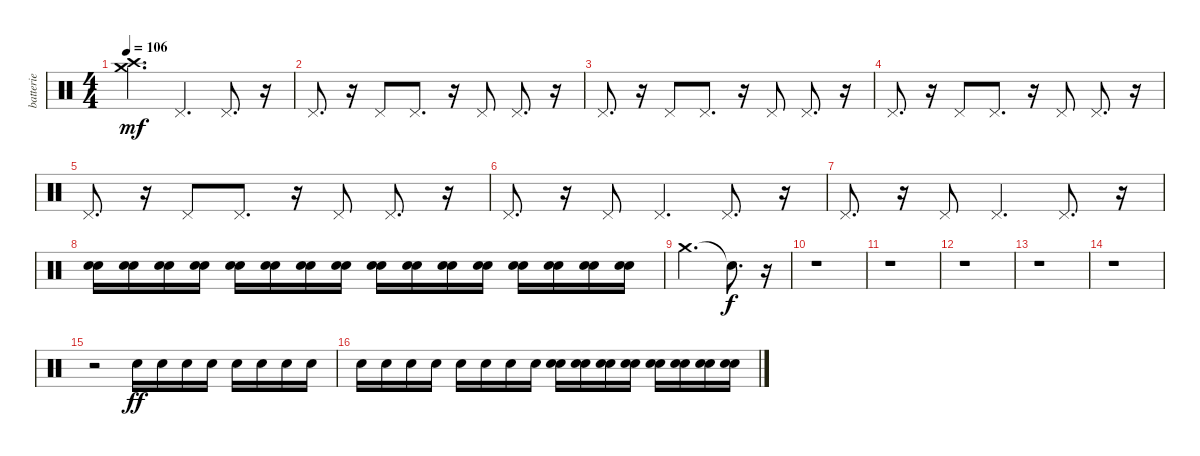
\track ("batterie" "batterie") {instrument percussion}
\staff {score}
\articulation defaults
\ts (4 4)
\tempo 106
\clef neutral
\ks c
("Crash high (hit)" "Crash medium (hit)").4{d dy mf} "Pedal Hi-Hat (hit)".4{d} "Pedal Hi-Hat (hit)".8{d} r.16 |
"Pedal Hi-Hat (hit)".8{d} r.16 "Pedal Hi-Hat (hit)".8 "Pedal Hi-Hat (hit)".8{d} r.16 "Pedal Hi-Hat (hit)".8 "Pedal Hi-Hat (hit)".8{d} r.16 |
"Pedal Hi-Hat (hit)".8{d} r.16 "Pedal Hi-Hat (hit)".8 "Pedal Hi-Hat (hit)".8{d} r.16 "Pedal Hi-Hat (hit)".8 "Pedal Hi-Hat (hit)".8{d} r.16 |
"Pedal Hi-Hat (hit)".8{d} r.16 "Pedal Hi-Hat (hit)".8 "Pedal Hi-Hat (hit)".8{d} r.16 "Pedal Hi-Hat (hit)".8 "Pedal Hi-Hat (hit)".8{d} r.16 |
"Pedal Hi-Hat (hit)".8{d} r.16 "Pedal Hi-Hat (hit)".8 "Pedal Hi-Hat (hit)".8{d} r.16 "Pedal Hi-Hat (hit)".8 "Pedal Hi-Hat (hit)".8{d} r.16 |
"Pedal Hi-Hat (hit)".8{d} r.16 "Pedal Hi-Hat (hit)".8 "Pedal Hi-Hat (hit)".4{d} "Pedal Hi-Hat (hit)".8{d} r.16 |
"Pedal Hi-Hat (hit)".8{d} r.16 "Pedal Hi-Hat (hit)".8 "Pedal Hi-Hat (hit)".4{d} "Pedal Hi-Hat (hit)".8{d} r.16 |
("Electric Snare (hit)" "Electric Snare (hit)").16{volume 3} ("Electric Snare (hit)" "Electric Snare (hit)").16{volume 4} ("Electric Snare (hit)" "Electric Snare (hit)").16{volume 6} ("Electric Snare (hit)" "Electric Snare (hit)").16{volume 8} ("Electric Snare (hit)" "Electric Snare (hit)").16{volume 9} ("Electric Snare (hit)" "Electric Snare (hit)").16{volume 11} ("Electric Snare (hit)" "Electric Snare (hit)").16{volume 13} ("Electric Snare (hit)" "Electric Snare (hit)").16{volume 14} ("Electric Snare (hit)" "Electric Snare (hit)").16{volume 16} ("Electric Snare (hit)" "Electric Snare (hit)").16 ("Electric Snare (hit)" "Electric Snare (hit)").16 ("Electric Snare (hit)" "Electric Snare (hit)").16 ("Electric Snare (hit)" "Electric Snare (hit)").16 ("Electric Snare (hit)" "Electric Snare (hit)").16 ("Electric Snare (hit)" "Electric Snare (hit)").16 ("Electric Snare (hit)" "Electric Snare (hit)").16 |
"Crash medium (hit)".2{d} "Snare (hit)"{t}.8{d dy f} r.16 |
r.1 |
r.1 |
r.1 |
r.1 |
r.1 |
r.2 "Electric Snare (hit)".16{dy ff volume 4} "Electric Snare (hit)".16{volume 4} "Electric Snare (hit)".16{volume 5} "Electric Snare (hit)".16{volume 6} "Electric Snare (hit)".16{volume 7} "Electric Snare (hit)".16{volume 8} "Electric Snare (hit)".16{volume 8} "Electric Snare (hit)".16{volume 9} |
"Electric Snare (hit)".16{volume 10} "Electric Snare (hit)".16{volume 10} "Electric Snare (hit)".16{volume 11} "Electric Snare (hit)".16{volume 12} "Electric Snare (hit)".16{volume 13} "Electric Snare (hit)".16{volume 14} "Electric Snare (hit)".16{volume 14} "Electric Snare (hit)".16{volume 15} ("Electric Snare (hit)" "Electric Snare (hit)").16{volume 16} ("Electric Snare (hit)" "Electric Snare (hit)").16 ("Electric Snare (hit)" "Electric Snare (hit)").16 ("Electric Snare (hit)" "Electric Snare (hit)").16 ("Electric Snare (hit)" "Electric Snare (hit)").16 ("Electric Snare (hit)" "Electric Snare (hit)").16 ("Electric Snare (hit)" "Electric Snare (hit)").16 ("Electric Snare (hit)" "Electric Snare (hit)").16
